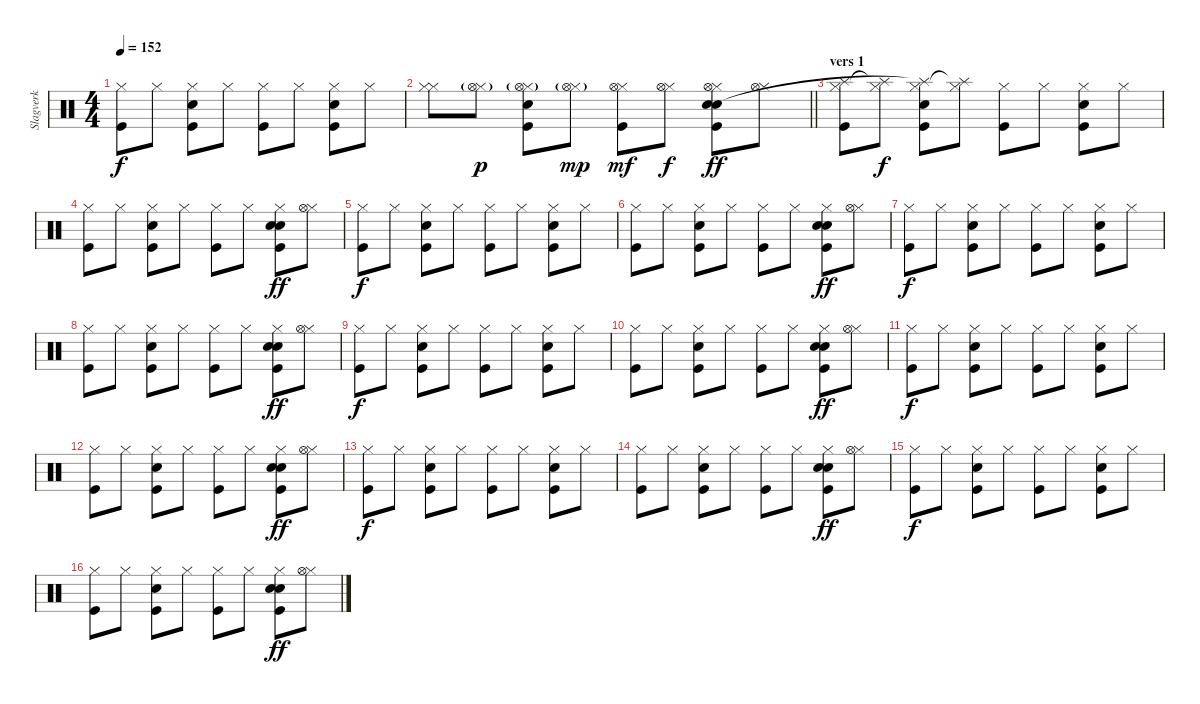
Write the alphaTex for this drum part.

\track ("Slagverk" "Slagverk") {instrument percussion}
\staff {score}
\articulation defaults
\ts (4 4)
\tempo 152
\clef neutral
\ks c
("Kick (hit)" "Hi-Hat (closed)").8{dy f} "Hi-Hat (closed)".8 ("Kick (hit)" "Hi-Hat (closed)" "Snare (hit) 2").8 "Hi-Hat (closed)".8 ("Kick (hit)" "Hi-Hat (closed)").8 "Hi-Hat (closed)".8 ("Kick (hit)" "Hi-Hat (closed)" "Snare (hit) 2").8 "Hi-Hat (closed)".8 |
\barLineRight lightlight
("Hi-Hat (closed)" "Hi-Hat (closed)").8 ("Hi-Hat (closed)" "Hi-Hat (open)"{g}).8{dy p} ("Kick (hit)" "Hi-Hat (closed)" "Snare (hit) 2" "Hi-Hat (open)"{g}).8 ("Hi-Hat (closed)" "Hi-Hat (open)"{g}).8{dy mp} ("Kick (hit)" "Hi-Hat (closed)" "Hi-Hat (open)").8{dy mf} ("Hi-Hat (closed)" "Hi-Hat (open)").8{dy f} ("Kick (hit)" "Hi-Hat (closed)" "Electric Snare (hit)" "Snare (hit) 2" "Hi-Hat (open)").8{dy ff} ("Hi-Hat (closed)" "Hi-Hat (open)").8 |
\section ("" "vers 1")
("Kick (hit)" "Hi-Hat (closed)" "Splash (hit)").8 ("Hi-Hat (closed)" "Splash (hit)"{t}).8{dy f} ("Kick (hit)" "Hi-Hat (closed)" "Snare (hit) 2" "Splash (hit)"{t}).8 ("Hi-Hat (closed)" "Splash (hit)"{t}).8 ("Kick (hit)" "Hi-Hat (closed)").8 "Hi-Hat (closed)".8 ("Kick (hit)" "Hi-Hat (closed)" "Snare (hit) 2").8 "Hi-Hat (closed)".8 |
("Kick (hit)" "Hi-Hat (closed)").8 "Hi-Hat (closed)".8 ("Kick (hit)" "Hi-Hat (closed)" "Snare (hit) 2").8 "Hi-Hat (closed)".8 ("Kick (hit)" "Hi-Hat (closed)").8 "Hi-Hat (closed)".8 ("Kick (hit)" "Hi-Hat (closed)" "Electric Snare (hit)" "Snare (hit) 2").8{dy ff} ("Hi-Hat (closed)" "Hi-Hat (open)").8 |
("Kick (hit)" "Hi-Hat (closed)").8{dy f} "Hi-Hat (closed)".8 ("Kick (hit)" "Hi-Hat (closed)" "Snare (hit) 2").8 "Hi-Hat (closed)".8 ("Kick (hit)" "Hi-Hat (closed)").8 "Hi-Hat (closed)".8 ("Kick (hit)" "Hi-Hat (closed)" "Snare (hit) 2").8 "Hi-Hat (closed)".8 |
("Kick (hit)" "Hi-Hat (closed)").8 "Hi-Hat (closed)".8 ("Kick (hit)" "Hi-Hat (closed)" "Snare (hit) 2").8 "Hi-Hat (closed)".8 ("Kick (hit)" "Hi-Hat (closed)").8 "Hi-Hat (closed)".8 ("Kick (hit)" "Hi-Hat (closed)" "Electric Snare (hit)" "Snare (hit) 2").8{dy ff} ("Hi-Hat (closed)" "Hi-Hat (open)").8 |
("Kick (hit)" "Hi-Hat (closed)").8{dy f} "Hi-Hat (closed)".8 ("Kick (hit)" "Hi-Hat (closed)" "Snare (hit) 2").8 "Hi-Hat (closed)".8 ("Kick (hit)" "Hi-Hat (closed)").8 "Hi-Hat (closed)".8 ("Kick (hit)" "Hi-Hat (closed)" "Snare (hit) 2").8 "Hi-Hat (closed)".8 |
("Kick (hit)" "Hi-Hat (closed)").8 "Hi-Hat (closed)".8 ("Kick (hit)" "Hi-Hat (closed)" "Snare (hit) 2").8 "Hi-Hat (closed)".8 ("Kick (hit)" "Hi-Hat (closed)").8 "Hi-Hat (closed)".8 ("Kick (hit)" "Hi-Hat (closed)" "Electric Snare (hit)" "Snare (hit) 2").8{dy ff} ("Hi-Hat (closed)" "Hi-Hat (open)").8 |
("Kick (hit)" "Hi-Hat (closed)").8{dy f} "Hi-Hat (closed)".8 ("Kick (hit)" "Hi-Hat (closed)" "Snare (hit) 2").8 "Hi-Hat (closed)".8 ("Kick (hit)" "Hi-Hat (closed)").8 "Hi-Hat (closed)".8 ("Kick (hit)" "Hi-Hat (closed)" "Snare (hit) 2").8 "Hi-Hat (closed)".8 |
("Kick (hit)" "Hi-Hat (closed)").8 "Hi-Hat (closed)".8 ("Kick (hit)" "Hi-Hat (closed)" "Snare (hit) 2").8 "Hi-Hat (closed)".8 ("Kick (hit)" "Hi-Hat (closed)").8 "Hi-Hat (closed)".8 ("Kick (hit)" "Hi-Hat (closed)" "Electric Snare (hit)" "Snare (hit) 2").8{dy ff} ("Hi-Hat (closed)" "Hi-Hat (open)").8 |
("Kick (hit)" "Hi-Hat (closed)").8{dy f} "Hi-Hat (closed)".8 ("Kick (hit)" "Hi-Hat (closed)" "Snare (hit) 2").8 "Hi-Hat (closed)".8 ("Kick (hit)" "Hi-Hat (closed)").8 "Hi-Hat (closed)".8 ("Kick (hit)" "Hi-Hat (closed)" "Snare (hit) 2").8 "Hi-Hat (closed)".8 |
("Kick (hit)" "Hi-Hat (closed)").8 "Hi-Hat (closed)".8 ("Kick (hit)" "Hi-Hat (closed)" "Snare (hit) 2").8 "Hi-Hat (closed)".8 ("Kick (hit)" "Hi-Hat (closed)").8 "Hi-Hat (closed)".8 ("Kick (hit)" "Hi-Hat (closed)" "Electric Snare (hit)" "Snare (hit) 2").8{dy ff} ("Hi-Hat (closed)" "Hi-Hat (open)").8 |
("Kick (hit)" "Hi-Hat (closed)").8{dy f} "Hi-Hat (closed)".8 ("Kick (hit)" "Hi-Hat (closed)" "Snare (hit) 2").8 "Hi-Hat (closed)".8 ("Kick (hit)" "Hi-Hat (closed)").8 "Hi-Hat (closed)".8 ("Kick (hit)" "Hi-Hat (closed)" "Snare (hit) 2").8 "Hi-Hat (closed)".8 |
("Kick (hit)" "Hi-Hat (closed)").8 "Hi-Hat (closed)".8 ("Kick (hit)" "Hi-Hat (closed)" "Snare (hit) 2").8 "Hi-Hat (closed)".8 ("Kick (hit)" "Hi-Hat (closed)").8 "Hi-Hat (closed)".8 ("Kick (hit)" "Hi-Hat (closed)" "Electric Snare (hit)" "Snare (hit) 2").8{dy ff} ("Hi-Hat (closed)" "Hi-Hat (open)").8 |
("Kick (hit)" "Hi-Hat (closed)").8{dy f} "Hi-Hat (closed)".8 ("Kick (hit)" "Hi-Hat (closed)" "Snare (hit) 2").8 "Hi-Hat (closed)".8 ("Kick (hit)" "Hi-Hat (closed)").8 "Hi-Hat (closed)".8 ("Kick (hit)" "Hi-Hat (closed)" "Snare (hit) 2").8 "Hi-Hat (closed)".8 |
("Kick (hit)" "Hi-Hat (closed)").8 "Hi-Hat (closed)".8 ("Kick (hit)" "Hi-Hat (closed)" "Snare (hit) 2").8 "Hi-Hat (closed)".8 ("Kick (hit)" "Hi-Hat (closed)").8 "Hi-Hat (closed)".8 ("Kick (hit)" "Hi-Hat (closed)" "Electric Snare (hit)" "Snare (hit) 2").8{dy ff} ("Hi-Hat (closed)" "Hi-Hat (open)").8
